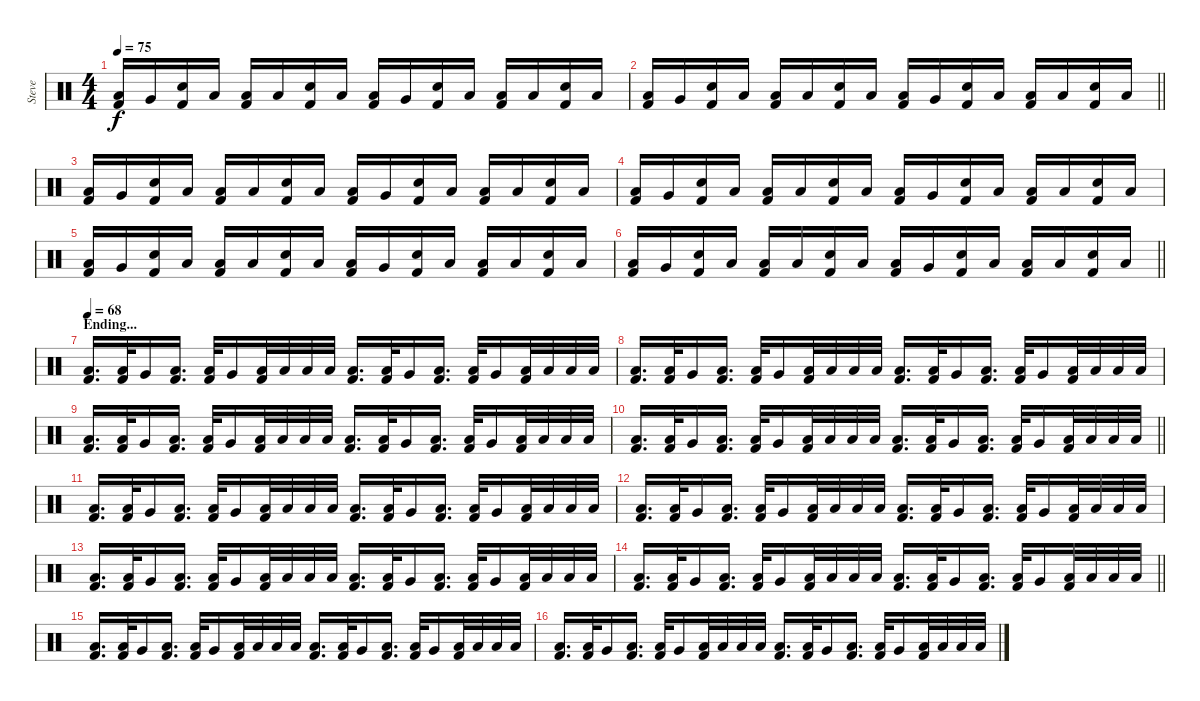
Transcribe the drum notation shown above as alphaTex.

\track ("Steve" "Steve") {instrument percussion}
\staff {score}
\articulation defaults
\ts (4 4)
\tempo 75
\clef neutral
\ks c
("Kick (hit) 2" "Low Floor Tom (hit)").16{dy f} "Very Low Tom (hit)".16 ("Kick (hit) 2" "Snare (hit) 2").16 "Low Floor Tom (hit)".16 ("Kick (hit) 2" "Low Tom (hit)").16 "Low Floor Tom (hit)".16 ("Kick (hit) 2" "Snare (hit) 2").16 "Low Floor Tom (hit)".16 ("Kick (hit) 2" "Low Floor Tom (hit)").16 "Very Low Tom (hit)".16 ("Kick (hit) 2" "Snare (hit) 2").16 "Low Floor Tom (hit)".16 ("Kick (hit) 2" "Low Tom (hit)").16 "Low Floor Tom (hit)".16 ("Kick (hit) 2" "Snare (hit) 2").16 "Low Floor Tom (hit)".16 |
\barLineRight lightlight
("Kick (hit) 2" "Low Floor Tom (hit)").16 "Very Low Tom (hit)".16 ("Kick (hit) 2" "Snare (hit) 2").16 "Low Floor Tom (hit)".16 ("Kick (hit) 2" "Low Tom (hit)").16 "Low Floor Tom (hit)".16 ("Kick (hit) 2" "Snare (hit) 2").16 "Low Floor Tom (hit)".16 ("Kick (hit) 2" "Low Floor Tom (hit)").16 "Very Low Tom (hit)".16 ("Kick (hit) 2" "Snare (hit) 2").16 "Low Floor Tom (hit)".16 ("Kick (hit) 2" "Low Tom (hit)").16 "Low Floor Tom (hit)".16 ("Kick (hit) 2" "Snare (hit) 2").16 "Low Floor Tom (hit)".16 |
("Kick (hit) 2" "Low Floor Tom (hit)").16 "Very Low Tom (hit)".16 ("Kick (hit) 2" "Snare (hit) 2").16 "Low Floor Tom (hit)".16 ("Kick (hit) 2" "Low Tom (hit)").16 "Low Floor Tom (hit)".16 ("Kick (hit) 2" "Snare (hit) 2").16 "Low Floor Tom (hit)".16 ("Kick (hit) 2" "Low Floor Tom (hit)").16 "Very Low Tom (hit)".16 ("Kick (hit) 2" "Snare (hit) 2").16 "Low Floor Tom (hit)".16 ("Kick (hit) 2" "Low Tom (hit)").16 "Low Floor Tom (hit)".16 ("Kick (hit) 2" "Snare (hit) 2").16 "Low Floor Tom (hit)".16 |
("Kick (hit) 2" "Low Floor Tom (hit)").16 "Very Low Tom (hit)".16 ("Kick (hit) 2" "Snare (hit) 2").16 "Low Floor Tom (hit)".16 ("Kick (hit) 2" "Low Tom (hit)").16 "Low Floor Tom (hit)".16 ("Kick (hit) 2" "Snare (hit) 2").16 "Low Floor Tom (hit)".16 ("Kick (hit) 2" "Low Floor Tom (hit)").16 "Very Low Tom (hit)".16 ("Kick (hit) 2" "Snare (hit) 2").16 "Low Floor Tom (hit)".16 ("Kick (hit) 2" "Low Tom (hit)").16 "Low Floor Tom (hit)".16 ("Kick (hit) 2" "Snare (hit) 2").16 "Low Floor Tom (hit)".16 |
("Kick (hit) 2" "Low Floor Tom (hit)").16 "Very Low Tom (hit)".16 ("Kick (hit) 2" "Snare (hit) 2").16 "Low Floor Tom (hit)".16 ("Kick (hit) 2" "Low Tom (hit)").16 "Low Floor Tom (hit)".16 ("Kick (hit) 2" "Snare (hit) 2").16 "Low Floor Tom (hit)".16 ("Kick (hit) 2" "Low Floor Tom (hit)").16 "Very Low Tom (hit)".16 ("Kick (hit) 2" "Snare (hit) 2").16 "Low Floor Tom (hit)".16 ("Kick (hit) 2" "Low Tom (hit)").16 "Low Floor Tom (hit)".16 ("Kick (hit) 2" "Snare (hit) 2").16 "Low Floor Tom (hit)".16 |
\barLineRight lightlight
("Kick (hit) 2" "Low Floor Tom (hit)").16 "Very Low Tom (hit)".16 ("Kick (hit) 2" "Snare (hit) 2").16 "Low Floor Tom (hit)".16 ("Kick (hit) 2" "Low Tom (hit)").16 "Low Floor Tom (hit)".16 ("Kick (hit) 2" "Snare (hit) 2").16 "Low Floor Tom (hit)".16 ("Kick (hit) 2" "Low Floor Tom (hit)").16 "Very Low Tom (hit)".16 ("Kick (hit) 2" "Snare (hit) 2").16 "Low Floor Tom (hit)".16 ("Kick (hit) 2" "Low Tom (hit)").16 "Low Floor Tom (hit)".16 ("Kick (hit) 2" "Snare (hit) 2").16 "Low Floor Tom (hit)".16 |
\section ("" "Ending...")
\tempo 68
("Kick (hit) 2" "Low Floor Tom (hit)").16{d} ("Kick (hit) 2" "Low Tom (hit)").32 "Very Low Tom (hit)".16 ("Kick (hit) 2" "Low Floor Tom (hit)").16{d} ("Kick (hit) 2" "Low Tom (hit)").32 "Very Low Tom (hit)".16 ("Kick (hit) 2" "Low Floor Tom (hit)").32 "Low Floor Tom (hit)".32 "Low Floor Tom (hit)".32 "Low Floor Tom (hit)".32 ("Kick (hit) 2" "Low Floor Tom (hit)").16{d} ("Kick (hit) 2" "Low Tom (hit)").32 "Very Low Tom (hit)".16 ("Kick (hit) 2" "Low Floor Tom (hit)").16{d} ("Kick (hit) 2" "Low Tom (hit)").32 "Very Low Tom (hit)".16 ("Kick (hit) 2" "Low Floor Tom (hit)").32 "Low Floor Tom (hit)".32 "Low Floor Tom (hit)".32 "Low Floor Tom (hit)".32 |
("Kick (hit) 2" "Low Floor Tom (hit)").16{d} ("Kick (hit) 2" "Low Tom (hit)").32 "Very Low Tom (hit)".16 ("Kick (hit) 2" "Low Floor Tom (hit)").16{d} ("Kick (hit) 2" "Low Tom (hit)").32 "Very Low Tom (hit)".16 ("Kick (hit) 2" "Low Floor Tom (hit)").32 "Low Floor Tom (hit)".32 "Low Floor Tom (hit)".32 "Low Floor Tom (hit)".32 ("Kick (hit) 2" "Low Floor Tom (hit)").16{d} ("Kick (hit) 2" "Low Tom (hit)").32 "Very Low Tom (hit)".16 ("Kick (hit) 2" "Low Floor Tom (hit)").16{d} ("Kick (hit) 2" "Low Tom (hit)").32 "Very Low Tom (hit)".16 ("Kick (hit) 2" "Low Floor Tom (hit)").32 "Low Floor Tom (hit)".32 "Low Floor Tom (hit)".32 "Low Floor Tom (hit)".32 |
("Kick (hit) 2" "Low Floor Tom (hit)").16{d} ("Kick (hit) 2" "Low Tom (hit)").32 "Very Low Tom (hit)".16 ("Kick (hit) 2" "Low Floor Tom (hit)").16{d} ("Kick (hit) 2" "Low Tom (hit)").32 "Very Low Tom (hit)".16 ("Kick (hit) 2" "Low Floor Tom (hit)").32 "Low Floor Tom (hit)".32 "Low Floor Tom (hit)".32 "Low Floor Tom (hit)".32 ("Kick (hit) 2" "Low Floor Tom (hit)").16{d} ("Kick (hit) 2" "Low Tom (hit)").32 "Very Low Tom (hit)".16 ("Kick (hit) 2" "Low Floor Tom (hit)").16{d} ("Kick (hit) 2" "Low Tom (hit)").32 "Very Low Tom (hit)".16 ("Kick (hit) 2" "Low Floor Tom (hit)").32 "Low Floor Tom (hit)".32 "Low Floor Tom (hit)".32 "Low Floor Tom (hit)".32 |
\barLineRight lightlight
("Kick (hit) 2" "Low Floor Tom (hit)").16{d} ("Kick (hit) 2" "Low Tom (hit)").32 "Very Low Tom (hit)".16 ("Kick (hit) 2" "Low Floor Tom (hit)").16{d} ("Kick (hit) 2" "Low Tom (hit)").32 "Very Low Tom (hit)".16 ("Kick (hit) 2" "Low Floor Tom (hit)").32 "Low Floor Tom (hit)".32 "Low Floor Tom (hit)".32 "Low Floor Tom (hit)".32 ("Kick (hit) 2" "Low Floor Tom (hit)").16{d} ("Kick (hit) 2" "Low Tom (hit)").32 "Very Low Tom (hit)".16 ("Kick (hit) 2" "Low Floor Tom (hit)").16{d} ("Kick (hit) 2" "Low Tom (hit)").32 "Very Low Tom (hit)".16 ("Kick (hit) 2" "Low Floor Tom (hit)").32 "Low Floor Tom (hit)".32 "Low Floor Tom (hit)".32 "Low Floor Tom (hit)".32 |
("Kick (hit) 2" "Low Floor Tom (hit)").16{d} ("Kick (hit) 2" "Low Tom (hit)").32 "Very Low Tom (hit)".16 ("Kick (hit) 2" "Low Floor Tom (hit)").16{d} ("Kick (hit) 2" "Low Tom (hit)").32 "Very Low Tom (hit)".16 ("Kick (hit) 2" "Low Floor Tom (hit)").32 "Low Floor Tom (hit)".32 "Low Floor Tom (hit)".32 "Low Floor Tom (hit)".32 ("Kick (hit) 2" "Low Floor Tom (hit)").16{d} ("Kick (hit) 2" "Low Tom (hit)").32 "Very Low Tom (hit)".16 ("Kick (hit) 2" "Low Floor Tom (hit)").16{d} ("Kick (hit) 2" "Low Tom (hit)").32 "Very Low Tom (hit)".16 ("Kick (hit) 2" "Low Floor Tom (hit)").32 "Low Floor Tom (hit)".32 "Low Floor Tom (hit)".32 "Low Floor Tom (hit)".32 |
("Kick (hit) 2" "Low Floor Tom (hit)").16{d} ("Kick (hit) 2" "Low Tom (hit)").32 "Very Low Tom (hit)".16 ("Kick (hit) 2" "Low Floor Tom (hit)").16{d} ("Kick (hit) 2" "Low Tom (hit)").32 "Very Low Tom (hit)".16 ("Kick (hit) 2" "Low Floor Tom (hit)").32 "Low Floor Tom (hit)".32 "Low Floor Tom (hit)".32 "Low Floor Tom (hit)".32 ("Kick (hit) 2" "Low Floor Tom (hit)").16{d} ("Kick (hit) 2" "Low Tom (hit)").32 "Very Low Tom (hit)".16 ("Kick (hit) 2" "Low Floor Tom (hit)").16{d} ("Kick (hit) 2" "Low Tom (hit)").32 "Very Low Tom (hit)".16 ("Kick (hit) 2" "Low Floor Tom (hit)").32 "Low Floor Tom (hit)".32 "Low Floor Tom (hit)".32 "Low Floor Tom (hit)".32 |
("Kick (hit) 2" "Low Floor Tom (hit)").16{d} ("Kick (hit) 2" "Low Tom (hit)").32 "Very Low Tom (hit)".16 ("Kick (hit) 2" "Low Floor Tom (hit)").16{d} ("Kick (hit) 2" "Low Tom (hit)").32 "Very Low Tom (hit)".16 ("Kick (hit) 2" "Low Floor Tom (hit)").32 "Low Floor Tom (hit)".32 "Low Floor Tom (hit)".32 "Low Floor Tom (hit)".32 ("Kick (hit) 2" "Low Floor Tom (hit)").16{d} ("Kick (hit) 2" "Low Tom (hit)").32 "Very Low Tom (hit)".16 ("Kick (hit) 2" "Low Floor Tom (hit)").16{d} ("Kick (hit) 2" "Low Tom (hit)").32 "Very Low Tom (hit)".16 ("Kick (hit) 2" "Low Floor Tom (hit)").32 "Low Floor Tom (hit)".32 "Low Floor Tom (hit)".32 "Low Floor Tom (hit)".32 |
\barLineRight lightlight
("Kick (hit) 2" "Low Floor Tom (hit)").16{d} ("Kick (hit) 2" "Low Tom (hit)").32 "Very Low Tom (hit)".16 ("Kick (hit) 2" "Low Floor Tom (hit)").16{d} ("Kick (hit) 2" "Low Tom (hit)").32 "Very Low Tom (hit)".16 ("Kick (hit) 2" "Low Floor Tom (hit)").32 "Low Floor Tom (hit)".32 "Low Floor Tom (hit)".32 "Low Floor Tom (hit)".32 ("Kick (hit) 2" "Low Floor Tom (hit)").16{d} ("Kick (hit) 2" "Low Tom (hit)").32 "Very Low Tom (hit)".16 ("Kick (hit) 2" "Low Floor Tom (hit)").16{d} ("Kick (hit) 2" "Low Tom (hit)").32 "Very Low Tom (hit)".16 ("Kick (hit) 2" "Low Floor Tom (hit)").32 "Low Floor Tom (hit)".32 "Low Floor Tom (hit)".32 "Low Floor Tom (hit)".32 |
("Kick (hit) 2" "Low Floor Tom (hit)").16{d} ("Kick (hit) 2" "Low Tom (hit)").32 "Very Low Tom (hit)".16 ("Kick (hit) 2" "Low Floor Tom (hit)").16{d} ("Kick (hit) 2" "Low Tom (hit)").32 "Very Low Tom (hit)".16 ("Kick (hit) 2" "Low Floor Tom (hit)").32 "Low Floor Tom (hit)".32 "Low Floor Tom (hit)".32 "Low Floor Tom (hit)".32 ("Kick (hit) 2" "Low Floor Tom (hit)").16{d} ("Kick (hit) 2" "Low Tom (hit)").32 "Very Low Tom (hit)".16 ("Kick (hit) 2" "Low Floor Tom (hit)").16{d} ("Kick (hit) 2" "Low Tom (hit)").32 "Very Low Tom (hit)".16 ("Kick (hit) 2" "Low Floor Tom (hit)").32 "Low Floor Tom (hit)".32 "Low Floor Tom (hit)".32 "Low Floor Tom (hit)".32 |
("Kick (hit) 2" "Low Floor Tom (hit)").16{d} ("Kick (hit) 2" "Low Tom (hit)").32 "Very Low Tom (hit)".16 ("Kick (hit) 2" "Low Floor Tom (hit)").16{d} ("Kick (hit) 2" "Low Tom (hit)").32 "Very Low Tom (hit)".16 ("Kick (hit) 2" "Low Floor Tom (hit)").32 "Low Floor Tom (hit)".32 "Low Floor Tom (hit)".32 "Low Floor Tom (hit)".32 ("Kick (hit) 2" "Low Floor Tom (hit)").16{d} ("Kick (hit) 2" "Low Tom (hit)").32 "Very Low Tom (hit)".16 ("Kick (hit) 2" "Low Floor Tom (hit)").16{d} ("Kick (hit) 2" "Low Tom (hit)").32 "Very Low Tom (hit)".16 ("Kick (hit) 2" "Low Floor Tom (hit)").32 "Low Floor Tom (hit)".32 "Low Floor Tom (hit)".32 "Low Floor Tom (hit)".32
